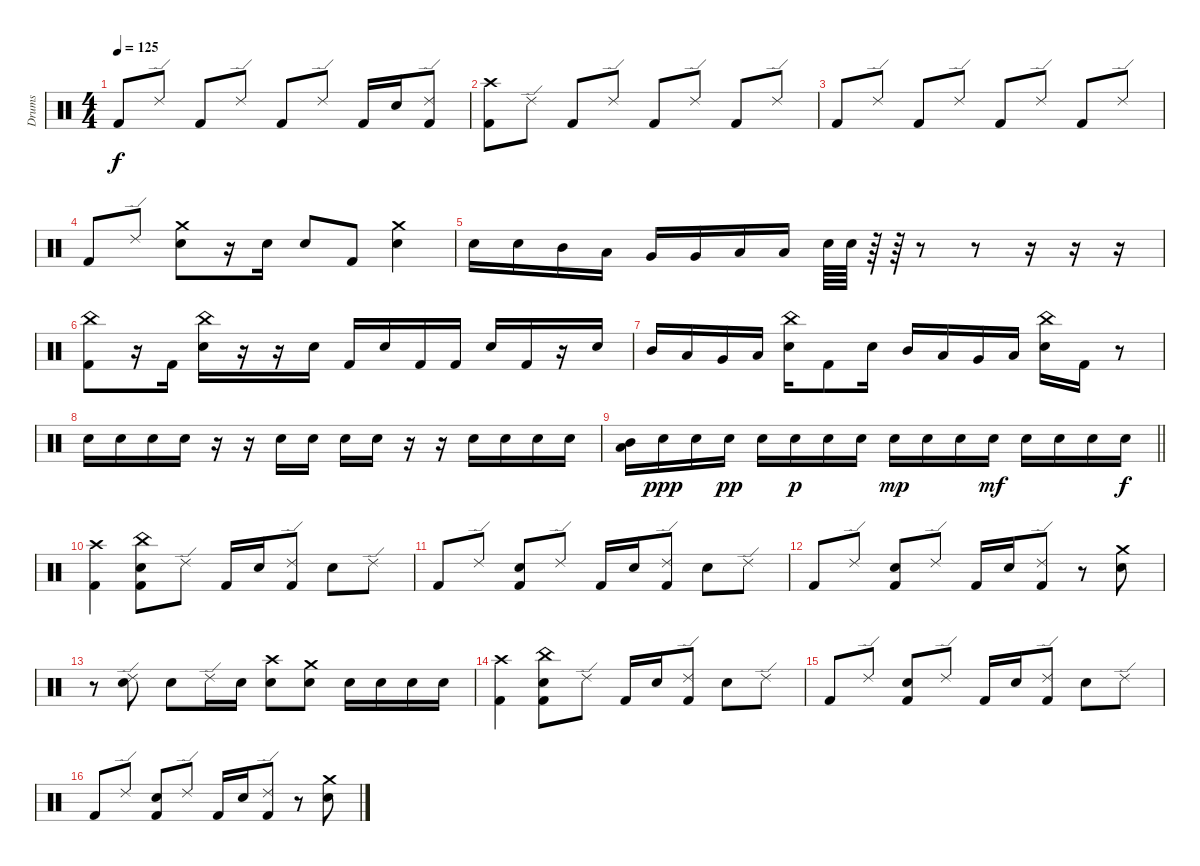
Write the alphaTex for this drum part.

\track ("Drums" "Drums") {instrument percussion}
\staff
\articulation defaults
\ts (4 4)
\tempo 125
\clef neutral
\ks c "Kick (hit) 2".8{dy f} "Ride (edge) 2".8 "Kick (hit) 2".8 "Ride (edge) 2".8 "Kick (hit) 2".8 "Ride (edge) 2".8 "Kick (hit) 2".16 "Electric Snare (hit)".16
("Ride (edge) 2" "Kick (hit) 2").8 |
("Crash high (hit)" "Kick (hit) 2").8 "Ride (edge) 2".8 "Kick (hit) 2".8 "Ride (edge) 2".8 "Kick (hit) 2".8 "Ride (edge) 2".8 "Kick (hit) 2".8 "Ride (edge) 2".8 |
"Kick (hit) 2".8 "Ride (edge) 2".8 "Kick (hit) 2".8 "Ride (edge) 2".8 "Kick (hit) 2".8 "Ride (edge) 2".8 "Kick (hit) 2".8 "Ride (edge) 2".8 |
"Kick (hit) 2".8 "Ride (edge) 2".8 ("Crash medium (hit)" "Electric Snare (hit)").8 r.16 "Electric Snare (hit)".16 "Electric Snare (hit)".8 "Kick (hit) 2".8 ("Crash medium (hit)" "Electric Snare (hit)").4 |
"Electric Snare (hit)".16 "Electric Snare (hit)".16 "Mid Tom (hit)".16 "Low Tom (hit)".16 "Very Low Tom (hit)".16 "Very Low Tom (hit)".16 "Low Floor Tom (hit)".16 "Low Floor Tom (hit)".16 "Electric Snare (hit)".64 "Electric Snare (hit)".64 r.64 r.64 r.8 r.8 r.16 r.16 r.16 |
("China (hit)" "Kick (hit) 2").8 r.16 "Kick (hit) 2".16 ("China (hit)" "Snare (hit) 2").16 r.16 r.16 "Snare (hit) 2".16 "Kick (hit) 2".16 "Snare (hit) 2".16 "Kick (hit) 2".16 "Kick (hit) 2".16 "Snare (hit) 2".16 "Kick (hit) 2".16 r.16 "Snare (hit) 2".16 |
"Mid Tom (hit)".16 "Low Tom (hit)".16 "Very Low Tom (hit)".16 "Low Floor Tom (hit)".16 ("China (hit)" "Snare (hit) 2").16 "Kick (hit) 2".8 "Snare (hit) 2".16 "Mid Tom (hit)".16 "Low Tom (hit)".16 "Very Low Tom (hit)".16 "Low Floor Tom (hit)".16 ("China (hit)" "Snare (hit) 2").16 "Kick (hit) 2".16 r.8 |
"Electric Snare (hit)".16 "Electric Snare (hit)".16 "Electric Snare (hit)".16 "Electric Snare (hit)".16 r.16 r.16 "Electric Snare (hit)".16 "Electric Snare (hit)".16 "Electric Snare (hit)".16 "Electric Snare (hit)".16 r.16 r.16 "Electric Snare (hit)".16 "Electric Snare (hit)".16 "Electric Snare (hit)".16 "Electric Snare (hit)".16 |
\barLineRight lightlight
("Low Tom (hit)" "Mid Tom (hit)").16 "Electric Snare (hit)".16{dy ppp} "Electric Snare (hit)".16 "Electric Snare (hit)".16{dy pp} "Electric Snare (hit)".16 "Electric Snare (hit)".16{dy p} "Electric Snare (hit)".16 "Electric Snare (hit)".16 "Electric Snare (hit)".16{dy mp} "Electric Snare (hit)".16 "Electric Snare (hit)".16 "Electric Snare (hit)".16{dy mf} "Electric Snare (hit)".16 "Electric Snare (hit)".16 "Electric Snare (hit)".16 "Electric Snare (hit)".16{dy f} |
("Crash high (hit)" "Kick (hit) 2").4 ("China (hit)" "Electric Snare (hit)" "Kick (hit) 2").8 "Ride (edge) 2".8 "Kick (hit) 2".16 "Electric Snare (hit)".16 ("Ride (edge) 2" "Kick (hit) 2").8 "Electric Snare (hit)".8 "Ride (edge) 2".8 |
"Kick (hit) 2".8 "Ride (edge) 2".8 ("Electric Snare (hit)" "Kick (hit) 2").8 "Ride (edge) 2".8 "Kick (hit) 2".16 "Electric Snare (hit)".16 ("Ride (edge) 2" "Kick (hit) 2").8 "Electric Snare (hit)".8 "Ride (edge) 2".8 |
"Kick (hit) 2".8 "Ride (edge) 2".8 ("Electric Snare (hit)" "Kick (hit) 2").8 "Ride (edge) 2".8 "Kick (hit) 2".16 "Electric Snare (hit)".16 ("Ride (edge) 2" "Kick (hit) 2").8 r.8 ("Crash medium (hit)" "Electric Snare (hit)").8 |
r.8 ("Ride (edge) 2" "Electric Snare (hit)").8 "Electric Snare (hit)".8 "Ride (edge) 2".16 "Electric Snare (hit)".16 ("Crash high (hit)" "Electric Snare (hit)").8 ("Crash medium (hit)" "Electric Snare (hit)").8 "Electric Snare (hit)".16 "Electric Snare (hit)".16 "Electric Snare (hit)".16 "Electric Snare (hit)".16 |
("Crash high (hit)" "Kick (hit) 2").4 ("China (hit)" "Electric Snare (hit)" "Kick (hit) 2").8 "Ride (edge) 2".8 "Kick (hit) 2".16 "Electric Snare (hit)".16 ("Ride (edge) 2" "Kick (hit) 2").8 "Electric Snare (hit)".8 "Ride (edge) 2".8 |
"Kick (hit) 2".8 "Ride (edge) 2".8 ("Electric Snare (hit)" "Kick (hit) 2").8 "Ride (edge) 2".8 "Kick (hit) 2".16 "Electric Snare (hit)".16 ("Ride (edge) 2" "Kick (hit) 2").8 "Electric Snare (hit)".8 "Ride (edge) 2".8 |
"Kick (hit) 2".8 "Ride (edge) 2".8 ("Electric Snare (hit)" "Kick (hit) 2").8 "Ride (edge) 2".8 "Kick (hit) 2".16 "Electric Snare (hit)".16 ("Ride (edge) 2" "Kick (hit) 2").8 r.8 ("Crash medium (hit)" "Electric Snare (hit)").8
